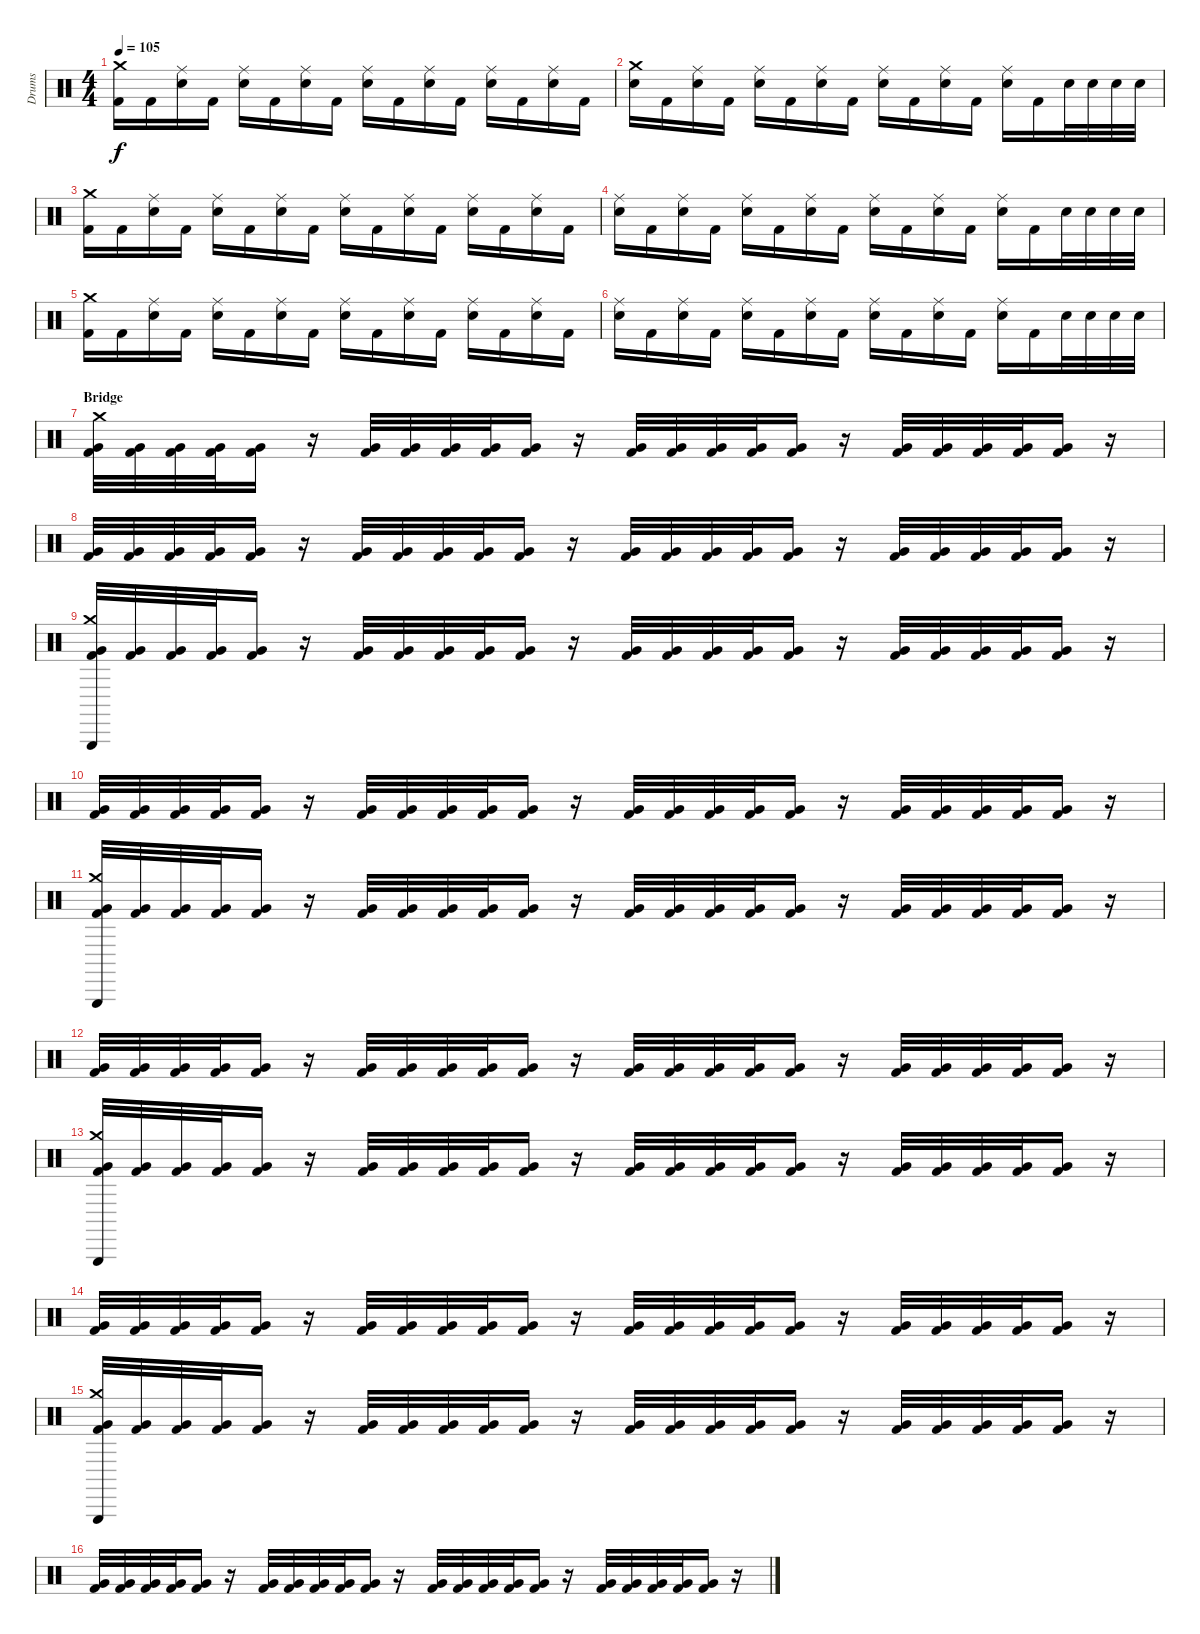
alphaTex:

\track ("Drums" "Drums") {instrument percussion}
\staff {score}
\articulation defaults
\ts (4 4)
\tempo 105
\clef neutral
\ks c
("Crash medium (hit)" "Kick (hit) 2").16{dy f} "Kick (hit) 2".16 ("Ride (middle)" "Electric Snare (hit)").16 "Kick (hit) 2".16 ("Ride (middle)" "Electric Snare (hit)").16 "Kick (hit) 2".16 ("Ride (middle)" "Electric Snare (hit)").16 "Kick (hit) 2".16 ("Ride (middle)" "Electric Snare (hit)").16 "Kick (hit) 2".16 ("Ride (middle)" "Electric Snare (hit)").16 "Kick (hit) 2".16 ("Ride (middle)" "Electric Snare (hit)").16 "Kick (hit) 2".16 ("Ride (middle)" "Electric Snare (hit)").16 "Kick (hit) 2".16 |
("Crash medium (hit)" "Electric Snare (hit)").16 "Kick (hit) 2".16 ("Ride (middle)" "Electric Snare (hit)").16 "Kick (hit) 2".16 ("Ride (middle)" "Electric Snare (hit)").16 "Kick (hit) 2".16 ("Ride (middle)" "Electric Snare (hit)").16 "Kick (hit) 2".16 ("Ride (middle)" "Electric Snare (hit)").16 "Kick (hit) 2".16 ("Ride (middle)" "Electric Snare (hit)").16 "Kick (hit) 2".16 ("Ride (middle)" "Electric Snare (hit)").16 "Kick (hit) 2".16 "Electric Snare (hit)".32 "Electric Snare (hit)".32 "Electric Snare (hit)".32 "Electric Snare (hit)".32 |
("Crash medium (hit)" "Kick (hit) 2").16 "Kick (hit) 2".16 ("Ride (middle)" "Electric Snare (hit)").16 "Kick (hit) 2".16 ("Ride (middle)" "Electric Snare (hit)").16 "Kick (hit) 2".16 ("Ride (middle)" "Electric Snare (hit)").16 "Kick (hit) 2".16 ("Ride (middle)" "Electric Snare (hit)").16 "Kick (hit) 2".16 ("Ride (middle)" "Electric Snare (hit)").16 "Kick (hit) 2".16 ("Ride (middle)" "Electric Snare (hit)").16 "Kick (hit) 2".16 ("Ride (middle)" "Electric Snare (hit)").16 "Kick (hit) 2".16 |
("Ride (middle)" "Electric Snare (hit)").16 "Kick (hit) 2".16 ("Ride (middle)" "Electric Snare (hit)").16 "Kick (hit) 2".16 ("Ride (middle)" "Electric Snare (hit)").16 "Kick (hit) 2".16 ("Ride (middle)" "Electric Snare (hit)").16 "Kick (hit) 2".16 ("Ride (middle)" "Electric Snare (hit)").16 "Kick (hit) 2".16 ("Ride (middle)" "Electric Snare (hit)").16 "Kick (hit) 2".16 ("Ride (middle)" "Electric Snare (hit)").16 "Kick (hit) 2".16 "Electric Snare (hit)".32 "Electric Snare (hit)".32 "Electric Snare (hit)".32 "Electric Snare (hit)".32 |
("Crash medium (hit)" "Kick (hit) 2").16 "Kick (hit) 2".16 ("Ride (middle)" "Electric Snare (hit)").16 "Kick (hit) 2".16 ("Ride (middle)" "Electric Snare (hit)").16 "Kick (hit) 2".16 ("Ride (middle)" "Electric Snare (hit)").16 "Kick (hit) 2".16 ("Ride (middle)" "Electric Snare (hit)").16 "Kick (hit) 2".16 ("Ride (middle)" "Electric Snare (hit)").16 "Kick (hit) 2".16 ("Ride (middle)" "Electric Snare (hit)").16 "Kick (hit) 2".16 ("Ride (middle)" "Electric Snare (hit)").16 "Kick (hit) 2".16 |
("Ride (middle)" "Electric Snare (hit)").16 "Kick (hit) 2".16 ("Ride (middle)" "Electric Snare (hit)").16 "Kick (hit) 2".16 ("Ride (middle)" "Electric Snare (hit)").16 "Kick (hit) 2".16 ("Ride (middle)" "Electric Snare (hit)").16 "Kick (hit) 2".16 ("Ride (middle)" "Electric Snare (hit)").16 "Kick (hit) 2".16 ("Ride (middle)" "Electric Snare (hit)").16 "Kick (hit) 2".16 ("Ride (middle)" "Electric Snare (hit)").16 "Kick (hit) 2".16 "Electric Snare (hit)".32 "Electric Snare (hit)".32 "Electric Snare (hit)".32 "Electric Snare (hit)".32 |
\section ("" "Bridge")
("Crash medium (hit)" "Very Low Tom (hit)" "Kick (hit) 2").32 ("Very Low Tom (hit)" "Kick (hit) 2").32 ("Very Low Tom (hit)" "Kick (hit) 2").32 ("Very Low Tom (hit)" "Kick (hit) 2").32 ("Very Low Tom (hit)" "Kick (hit) 2").16 r.16 ("Very Low Tom (hit)" "Kick (hit) 2").32 ("Very Low Tom (hit)" "Kick (hit) 2").32 ("Very Low Tom (hit)" "Kick (hit) 2").32 ("Very Low Tom (hit)" "Kick (hit) 2").32 ("Very Low Tom (hit)" "Kick (hit) 2").16 r.16 ("Very Low Tom (hit)" "Kick (hit) 2").32 ("Very Low Tom (hit)" "Kick (hit) 2").32 ("Very Low Tom (hit)" "Kick (hit) 2").32 ("Very Low Tom (hit)" "Kick (hit) 2").32 ("Very Low Tom (hit)" "Kick (hit) 2").16 r.16 ("Very Low Tom (hit)" "Kick (hit) 2").32 ("Very Low Tom (hit)" "Kick (hit) 2").32 ("Very Low Tom (hit)" "Kick (hit) 2").32 ("Very Low Tom (hit)" "Kick (hit) 2").32 ("Very Low Tom (hit)" "Kick (hit) 2").16 r.16 |
("Very Low Tom (hit)" "Kick (hit) 2").32 ("Very Low Tom (hit)" "Kick (hit) 2").32 ("Very Low Tom (hit)" "Kick (hit) 2").32 ("Very Low Tom (hit)" "Kick (hit) 2").32 ("Very Low Tom (hit)" "Kick (hit) 2").16 r.16 ("Very Low Tom (hit)" "Kick (hit) 2").32 ("Very Low Tom (hit)" "Kick (hit) 2").32 ("Very Low Tom (hit)" "Kick (hit) 2").32 ("Very Low Tom (hit)" "Kick (hit) 2").32 ("Very Low Tom (hit)" "Kick (hit) 2").16 r.16 ("Very Low Tom (hit)" "Kick (hit) 2").32 ("Very Low Tom (hit)" "Kick (hit) 2").32 ("Very Low Tom (hit)" "Kick (hit) 2").32 ("Very Low Tom (hit)" "Kick (hit) 2").32 ("Very Low Tom (hit)" "Kick (hit) 2").16 r.16 ("Very Low Tom (hit)" "Kick (hit) 2").32 ("Very Low Tom (hit)" "Kick (hit) 2").32 ("Very Low Tom (hit)" "Kick (hit) 2").32 ("Very Low Tom (hit)" "Kick (hit) 2").32 ("Very Low Tom (hit)" "Kick (hit) 2").16 r.16 |
("Triangle (hit)" "Crash medium (hit)" "Very Low Tom (hit)" "Kick (hit) 2").32 ("Very Low Tom (hit)" "Kick (hit) 2").32 ("Very Low Tom (hit)" "Kick (hit) 2").32 ("Very Low Tom (hit)" "Kick (hit) 2").32 ("Very Low Tom (hit)" "Kick (hit) 2").16 r.16 ("Very Low Tom (hit)" "Kick (hit) 2").32 ("Very Low Tom (hit)" "Kick (hit) 2").32 ("Very Low Tom (hit)" "Kick (hit) 2").32 ("Very Low Tom (hit)" "Kick (hit) 2").32 ("Very Low Tom (hit)" "Kick (hit) 2").16 r.16 ("Very Low Tom (hit)" "Kick (hit) 2").32 ("Very Low Tom (hit)" "Kick (hit) 2").32 ("Very Low Tom (hit)" "Kick (hit) 2").32 ("Very Low Tom (hit)" "Kick (hit) 2").32 ("Very Low Tom (hit)" "Kick (hit) 2").16 r.16 ("Very Low Tom (hit)" "Kick (hit) 2").32 ("Very Low Tom (hit)" "Kick (hit) 2").32 ("Very Low Tom (hit)" "Kick (hit) 2").32 ("Very Low Tom (hit)" "Kick (hit) 2").32 ("Very Low Tom (hit)" "Kick (hit) 2").16 r.16 |
("Very Low Tom (hit)" "Kick (hit) 2").32 ("Very Low Tom (hit)" "Kick (hit) 2").32 ("Very Low Tom (hit)" "Kick (hit) 2").32 ("Very Low Tom (hit)" "Kick (hit) 2").32 ("Very Low Tom (hit)" "Kick (hit) 2").16 r.16 ("Very Low Tom (hit)" "Kick (hit) 2").32 ("Very Low Tom (hit)" "Kick (hit) 2").32 ("Very Low Tom (hit)" "Kick (hit) 2").32 ("Very Low Tom (hit)" "Kick (hit) 2").32 ("Very Low Tom (hit)" "Kick (hit) 2").16 r.16 ("Very Low Tom (hit)" "Kick (hit) 2").32 ("Very Low Tom (hit)" "Kick (hit) 2").32 ("Very Low Tom (hit)" "Kick (hit) 2").32 ("Very Low Tom (hit)" "Kick (hit) 2").32 ("Very Low Tom (hit)" "Kick (hit) 2").16 r.16 ("Very Low Tom (hit)" "Kick (hit) 2").32 ("Very Low Tom (hit)" "Kick (hit) 2").32 ("Very Low Tom (hit)" "Kick (hit) 2").32 ("Very Low Tom (hit)" "Kick (hit) 2").32 ("Very Low Tom (hit)" "Kick (hit) 2").16 r.16 |
("Triangle (hit)" "Crash medium (hit)" "Very Low Tom (hit)" "Kick (hit) 2").32 ("Very Low Tom (hit)" "Kick (hit) 2").32 ("Very Low Tom (hit)" "Kick (hit) 2").32 ("Very Low Tom (hit)" "Kick (hit) 2").32 ("Very Low Tom (hit)" "Kick (hit) 2").16 r.16 ("Very Low Tom (hit)" "Kick (hit) 2").32 ("Very Low Tom (hit)" "Kick (hit) 2").32 ("Very Low Tom (hit)" "Kick (hit) 2").32 ("Very Low Tom (hit)" "Kick (hit) 2").32 ("Very Low Tom (hit)" "Kick (hit) 2").16 r.16 ("Very Low Tom (hit)" "Kick (hit) 2").32 ("Very Low Tom (hit)" "Kick (hit) 2").32 ("Very Low Tom (hit)" "Kick (hit) 2").32 ("Very Low Tom (hit)" "Kick (hit) 2").32 ("Very Low Tom (hit)" "Kick (hit) 2").16 r.16 ("Very Low Tom (hit)" "Kick (hit) 2").32 ("Very Low Tom (hit)" "Kick (hit) 2").32 ("Very Low Tom (hit)" "Kick (hit) 2").32 ("Very Low Tom (hit)" "Kick (hit) 2").32 ("Very Low Tom (hit)" "Kick (hit) 2").16 r.16 |
("Very Low Tom (hit)" "Kick (hit) 2").32 ("Very Low Tom (hit)" "Kick (hit) 2").32 ("Very Low Tom (hit)" "Kick (hit) 2").32 ("Very Low Tom (hit)" "Kick (hit) 2").32 ("Very Low Tom (hit)" "Kick (hit) 2").16 r.16 ("Very Low Tom (hit)" "Kick (hit) 2").32 ("Very Low Tom (hit)" "Kick (hit) 2").32 ("Very Low Tom (hit)" "Kick (hit) 2").32 ("Very Low Tom (hit)" "Kick (hit) 2").32 ("Very Low Tom (hit)" "Kick (hit) 2").16 r.16 ("Very Low Tom (hit)" "Kick (hit) 2").32 ("Very Low Tom (hit)" "Kick (hit) 2").32 ("Very Low Tom (hit)" "Kick (hit) 2").32 ("Very Low Tom (hit)" "Kick (hit) 2").32 ("Very Low Tom (hit)" "Kick (hit) 2").16 r.16 ("Very Low Tom (hit)" "Kick (hit) 2").32 ("Very Low Tom (hit)" "Kick (hit) 2").32 ("Very Low Tom (hit)" "Kick (hit) 2").32 ("Very Low Tom (hit)" "Kick (hit) 2").32 ("Very Low Tom (hit)" "Kick (hit) 2").16 r.16 |
("Triangle (hit)" "Crash medium (hit)" "Very Low Tom (hit)" "Kick (hit) 2").32 ("Very Low Tom (hit)" "Kick (hit) 2").32 ("Very Low Tom (hit)" "Kick (hit) 2").32 ("Very Low Tom (hit)" "Kick (hit) 2").32 ("Very Low Tom (hit)" "Kick (hit) 2").16 r.16 ("Very Low Tom (hit)" "Kick (hit) 2").32 ("Very Low Tom (hit)" "Kick (hit) 2").32 ("Very Low Tom (hit)" "Kick (hit) 2").32 ("Very Low Tom (hit)" "Kick (hit) 2").32 ("Very Low Tom (hit)" "Kick (hit) 2").16 r.16 ("Very Low Tom (hit)" "Kick (hit) 2").32 ("Very Low Tom (hit)" "Kick (hit) 2").32 ("Very Low Tom (hit)" "Kick (hit) 2").32 ("Very Low Tom (hit)" "Kick (hit) 2").32 ("Very Low Tom (hit)" "Kick (hit) 2").16 r.16 ("Very Low Tom (hit)" "Kick (hit) 2").32 ("Very Low Tom (hit)" "Kick (hit) 2").32 ("Very Low Tom (hit)" "Kick (hit) 2").32 ("Very Low Tom (hit)" "Kick (hit) 2").32 ("Very Low Tom (hit)" "Kick (hit) 2").16 r.16 |
("Very Low Tom (hit)" "Kick (hit) 2").32 ("Very Low Tom (hit)" "Kick (hit) 2").32 ("Very Low Tom (hit)" "Kick (hit) 2").32 ("Very Low Tom (hit)" "Kick (hit) 2").32 ("Very Low Tom (hit)" "Kick (hit) 2").16 r.16 ("Very Low Tom (hit)" "Kick (hit) 2").32 ("Very Low Tom (hit)" "Kick (hit) 2").32 ("Very Low Tom (hit)" "Kick (hit) 2").32 ("Very Low Tom (hit)" "Kick (hit) 2").32 ("Very Low Tom (hit)" "Kick (hit) 2").16 r.16 ("Very Low Tom (hit)" "Kick (hit) 2").32 ("Very Low Tom (hit)" "Kick (hit) 2").32 ("Very Low Tom (hit)" "Kick (hit) 2").32 ("Very Low Tom (hit)" "Kick (hit) 2").32 ("Very Low Tom (hit)" "Kick (hit) 2").16 r.16 ("Very Low Tom (hit)" "Kick (hit) 2").32 ("Very Low Tom (hit)" "Kick (hit) 2").32 ("Very Low Tom (hit)" "Kick (hit) 2").32 ("Very Low Tom (hit)" "Kick (hit) 2").32 ("Very Low Tom (hit)" "Kick (hit) 2").16 r.16 |
("Triangle (hit)" "Crash medium (hit)" "Very Low Tom (hit)" "Kick (hit) 2").32 ("Very Low Tom (hit)" "Kick (hit) 2").32 ("Very Low Tom (hit)" "Kick (hit) 2").32 ("Very Low Tom (hit)" "Kick (hit) 2").32 ("Very Low Tom (hit)" "Kick (hit) 2").16 r.16 ("Very Low Tom (hit)" "Kick (hit) 2").32 ("Very Low Tom (hit)" "Kick (hit) 2").32 ("Very Low Tom (hit)" "Kick (hit) 2").32 ("Very Low Tom (hit)" "Kick (hit) 2").32 ("Very Low Tom (hit)" "Kick (hit) 2").16 r.16 ("Very Low Tom (hit)" "Kick (hit) 2").32 ("Very Low Tom (hit)" "Kick (hit) 2").32 ("Very Low Tom (hit)" "Kick (hit) 2").32 ("Very Low Tom (hit)" "Kick (hit) 2").32 ("Very Low Tom (hit)" "Kick (hit) 2").16 r.16 ("Very Low Tom (hit)" "Kick (hit) 2").32 ("Very Low Tom (hit)" "Kick (hit) 2").32 ("Very Low Tom (hit)" "Kick (hit) 2").32 ("Very Low Tom (hit)" "Kick (hit) 2").32 ("Very Low Tom (hit)" "Kick (hit) 2").16 r.16 |
("Very Low Tom (hit)" "Kick (hit) 2").32 ("Very Low Tom (hit)" "Kick (hit) 2").32 ("Very Low Tom (hit)" "Kick (hit) 2").32 ("Very Low Tom (hit)" "Kick (hit) 2").32 ("Very Low Tom (hit)" "Kick (hit) 2").16 r.16 ("Very Low Tom (hit)" "Kick (hit) 2").32 ("Very Low Tom (hit)" "Kick (hit) 2").32 ("Very Low Tom (hit)" "Kick (hit) 2").32 ("Very Low Tom (hit)" "Kick (hit) 2").32 ("Very Low Tom (hit)" "Kick (hit) 2").16 r.16 ("Very Low Tom (hit)" "Kick (hit) 2").32 ("Very Low Tom (hit)" "Kick (hit) 2").32 ("Very Low Tom (hit)" "Kick (hit) 2").32 ("Very Low Tom (hit)" "Kick (hit) 2").32 ("Very Low Tom (hit)" "Kick (hit) 2").16 r.16 ("Very Low Tom (hit)" "Kick (hit) 2").32 ("Very Low Tom (hit)" "Kick (hit) 2").32 ("Very Low Tom (hit)" "Kick (hit) 2").32 ("Very Low Tom (hit)" "Kick (hit) 2").32 ("Very Low Tom (hit)" "Kick (hit) 2").16 r.16
